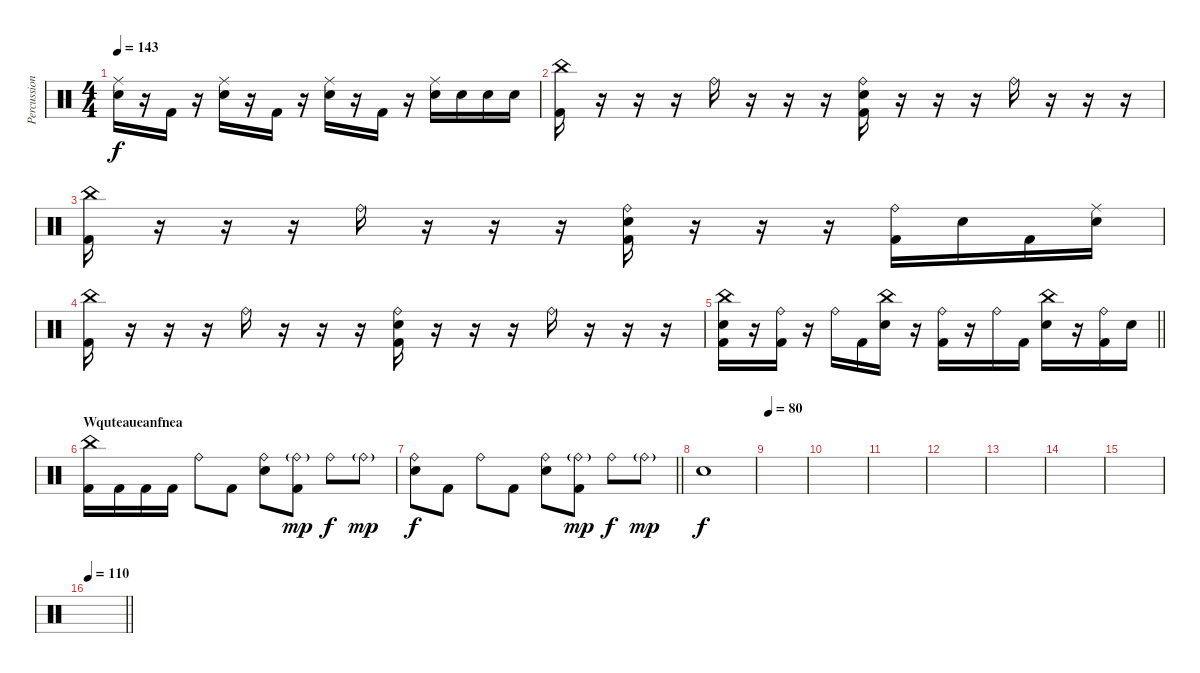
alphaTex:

\track ("Percussion" "Percussion") {instrument percussion}
\staff {score}
\articulation defaults
\ts (4 4)
\tempo 143
\clef neutral
\ks c
("Ride (middle)" "Electric Snare (hit)").16{dy f} r.16 "Kick (hit) 2".16 r.16 ("Ride (middle)" "Electric Snare (hit)").16 r.16 "Kick (hit) 2".16 r.16 ("Ride (middle)" "Electric Snare (hit)").16 r.16 "Kick (hit) 2".16 r.16 ("Ride (middle)" "Electric Snare (hit)").16 "Electric Snare (hit)".16 "Electric Snare (hit)".16 "Electric Snare (hit)".16 |
("China (hit)" "Kick (hit) 2").16 r.16 r.16 r.16 "Ride (bell)".16 r.16 r.16 r.16 ("Ride (bell)" "Electric Snare (hit)" "Kick (hit) 2").16 r.16 r.16 r.16 "Ride (bell)".16 r.16 r.16 r.16 |
("China (hit)" "Kick (hit) 2").16 r.16 r.16 r.16 "Ride (bell)".16 r.16 r.16 r.16 ("Ride (bell)" "Electric Snare (hit)" "Kick (hit) 2").16 r.16 r.16 r.16 ("Ride (bell)" "Kick (hit) 2").16 "Electric Snare (hit)".16 "Kick (hit) 2".16 ("Ride (middle)" "Electric Snare (hit)").16 |
("China (hit)" "Kick (hit) 2").16 r.16 r.16 r.16 "Ride (bell)".16 r.16 r.16 r.16 ("Ride (bell)" "Electric Snare (hit)" "Kick (hit) 2").16 r.16 r.16 r.16 "Ride (bell)".16 r.16 r.16 r.16 |
\barLineRight lightlight
("China (hit)" "Electric Snare (hit)" "Kick (hit) 2").16 r.16 ("Ride (bell)" "Kick (hit) 2").16 r.16 "Ride (bell)".16 "Kick (hit) 2".16 ("China (hit)" "Electric Snare (hit)").16 r.16 ("Ride (bell)" "Kick (hit) 2").16 r.16 "Ride (bell)".16 "Kick (hit) 2".16 ("China (hit)" "Electric Snare (hit)").16 r.16 ("Ride (bell)" "Kick (hit) 2").16 "Electric Snare (hit)".16 |
\section ("" "Wquteaueanfnea")
("China (hit)" "Kick (hit) 2").16 "Kick (hit) 2".16 "Kick (hit) 2".16 "Kick (hit) 2".16 "Ride (bell)".8 "Kick (hit) 2".8 ("Electric Snare (hit)" "Ride (bell)").8 ("Ride (bell)"{g} "Kick (hit) 2").8{dy mp} "Ride (bell)".8{dy f} "Ride (bell)"{g}.8{dy mp} |
\barLineRight lightlight
("Electric Snare (hit)" "Ride (bell)").8{dy f} "Kick (hit) 2".8 "Ride (bell)".8 "Kick (hit) 2".8 ("Electric Snare (hit)" "Ride (bell)").8 ("Ride (bell)"{g} "Kick (hit) 2").8{dy mp} "Ride (bell)".8{dy f} "Ride (bell)"{g}.8{dy mp} |
"Electric Snare (hit)".1{dy f} |
\tempo 80
|
|
|
|
|
|
|
\tempo 110
\barLineRight lightlight
